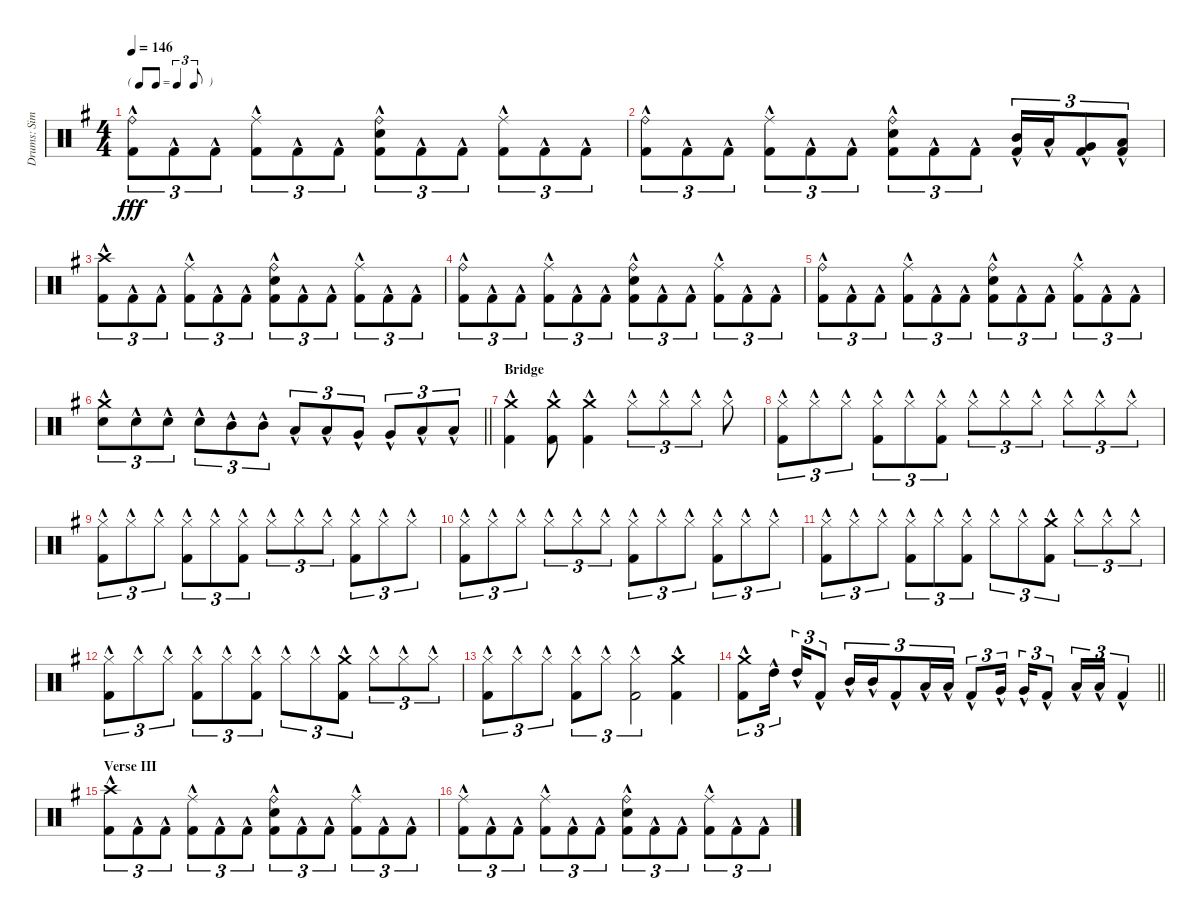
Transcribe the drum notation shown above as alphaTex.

\track ("Drums: Simon" "Drums: Sim") {instrument percussion}
\staff {score}
\articulation defaults
\ts (4 4)
\tf triplet8th
\tempo 146
\clef neutral
\ks g
("Ride (bell)"{hac} "Kick (hit) 2"{hac}).8{tu (3 2) dy fff} "Kick (hit) 2"{hac}.8{tu (3 2)} "Kick (hit) 2"{hac}.8{tu (3 2)} ("Ride (middle)"{hac} "Kick (hit) 2"{hac}).8{tu (3 2)} "Kick (hit) 2"{hac}.8{tu (3 2)} "Kick (hit) 2"{hac}.8{tu (3 2)} ("Ride (bell)"{hac} "Snare (hit) 2"{hac} "Kick (hit) 2"{hac}).8{tu (3 2)} "Kick (hit) 2"{hac}.8{tu (3 2)} "Kick (hit) 2"{hac}.8{tu (3 2)} ("Ride (middle)"{hac} "Kick (hit) 2"{hac}).8{tu (3 2)} "Kick (hit) 2"{hac}.8{tu (3 2)} "Kick (hit) 2"{hac}.8{tu (3 2)} |
("Ride (bell)"{hac} "Kick (hit) 2"{hac}).8{tu (3 2)} "Kick (hit) 2"{hac}.8{tu (3 2)} "Kick (hit) 2"{hac}.8{tu (3 2)} ("Ride (middle)"{hac} "Kick (hit) 2"{hac}).8{tu (3 2)} "Kick (hit) 2"{hac}.8{tu (3 2)} "Kick (hit) 2"{hac}.8{tu (3 2)} ("Ride (bell)"{hac} "Snare (hit) 2"{hac} "Kick (hit) 2"{hac}).8{tu (3 2)} "Kick (hit) 2"{hac}.8{tu (3 2)} "Kick (hit) 2"{hac}.8{tu (3 2)} ("Mid Tom (hit)"{hac} "Kick (hit) 2"{hac}).16{tu (3 2)} "Low Tom (hit)"{hac}.16{tu (3 2)} ("Very Low Tom (hit)"{hac} "Kick (hit) 2"{hac}).8{tu (3 2)} ("Low Floor Tom (hit)"{hac} "Kick (hit) 2"{hac}).8{tu (3 2)} |
("Crash high (hit)"{hac} "Kick (hit) 2"{hac}).8{tu (3 2)} "Kick (hit) 2"{hac}.8{tu (3 2)} "Kick (hit) 2"{hac}.8{tu (3 2)} ("Ride (middle)"{hac} "Kick (hit) 2"{hac}).8{tu (3 2)} "Kick (hit) 2"{hac}.8{tu (3 2)} "Kick (hit) 2"{hac}.8{tu (3 2)} ("Ride (bell)"{hac} "Snare (hit) 2"{hac} "Kick (hit) 2"{hac}).8{tu (3 2)} "Kick (hit) 2"{hac}.8{tu (3 2)} "Kick (hit) 2"{hac}.8{tu (3 2)} ("Ride (middle)"{hac} "Kick (hit) 2"{hac}).8{tu (3 2)} "Kick (hit) 2"{hac}.8{tu (3 2)} "Kick (hit) 2"{hac}.8{tu (3 2)} |
("Ride (bell)"{hac} "Kick (hit) 2"{hac}).8{tu (3 2)} "Kick (hit) 2"{hac}.8{tu (3 2)} "Kick (hit) 2"{hac}.8{tu (3 2)} ("Ride (middle)"{hac} "Kick (hit) 2"{hac}).8{tu (3 2)} "Kick (hit) 2"{hac}.8{tu (3 2)} "Kick (hit) 2"{hac}.8{tu (3 2)} ("Ride (bell)"{hac} "Snare (hit) 2"{hac} "Kick (hit) 2"{hac}).8{tu (3 2)} "Kick (hit) 2"{hac}.8{tu (3 2)} "Kick (hit) 2"{hac}.8{tu (3 2)} ("Ride (middle)"{hac} "Kick (hit) 2"{hac}).8{tu (3 2)} "Kick (hit) 2"{hac}.8{tu (3 2)} "Kick (hit) 2"{hac}.8{tu (3 2)} |
("Ride (bell)"{hac} "Kick (hit) 2"{hac}).8{tu (3 2)} "Kick (hit) 2"{hac}.8{tu (3 2)} "Kick (hit) 2"{hac}.8{tu (3 2)} ("Ride (middle)"{hac} "Kick (hit) 2"{hac}).8{tu (3 2)} "Kick (hit) 2"{hac}.8{tu (3 2)} "Kick (hit) 2"{hac}.8{tu (3 2)} ("Ride (bell)"{hac} "Snare (hit) 2"{hac} "Kick (hit) 2"{hac}).8{tu (3 2)} "Kick (hit) 2"{hac}.8{tu (3 2)} "Kick (hit) 2"{hac}.8{tu (3 2)} ("Ride (middle)"{hac} "Kick (hit) 2"{hac}).8{tu (3 2)} "Kick (hit) 2"{hac}.8{tu (3 2)} "Kick (hit) 2"{hac}.8{tu (3 2)} |
\barLineRight lightlight
("Crash medium (hit)"{hac} "Electric Snare (hit)"{hac}).8{tu (3 2)} "Electric Snare (hit)"{hac}.8{tu (3 2)} "Electric Snare (hit)"{hac}.8{tu (3 2)} "Electric Snare (hit)"{hac}.8{tu (3 2)} "Mid Tom (hit)"{hac}.8{tu (3 2)} "Mid Tom (hit)"{hac}.8{tu (3 2)} "Low Tom (hit)"{hac}.8{tu (3 2)} "Low Tom (hit)"{hac}.8{tu (3 2)} "Very Low Tom (hit)"{hac}.8{tu (3 2)} "Very Low Tom (hit)"{hac}.8{tu (3 2)} "Low Floor Tom (hit)"{hac}.8{tu (3 2)} "Low Floor Tom (hit)"{hac}.8{tu (3 2)} |
\section ("" "Bridge")
("Crash medium (hit)"{hac} "Kick (hit) 2"{hac}).4 ("Crash medium (hit)"{hac} "Kick (hit) 2"{hac}).8 ("Crash medium (hit)"{hac} "Kick (hit) 2"{hac}).4 "Hi-Hat (closed)"{hac}.8{tu (3 2)} "Hi-Hat (closed)"{hac}.8{tu (3 2)} "Hi-Hat (closed)"{hac}.8{tu (3 2)} "Hi-Hat (closed)"{hac}.8 |
("Hi-Hat (closed)"{hac} "Kick (hit) 2"{hac}).8{tu (3 2)} "Hi-Hat (closed)"{hac}.8{tu (3 2)} "Hi-Hat (closed)"{hac}.8{tu (3 2)} ("Hi-Hat (closed)"{hac} "Kick (hit) 2"{hac}).8{tu (3 2)} "Hi-Hat (closed)"{hac}.8{tu (3 2)} ("Hi-Hat (closed)"{hac} "Kick (hit) 2"{hac}).8{tu (3 2)} "Hi-Hat (closed)"{hac}.8{tu (3 2)} "Hi-Hat (closed)"{hac}.8{tu (3 2)} "Hi-Hat (closed)"{hac}.8{tu (3 2)} "Hi-Hat (closed)"{hac}.8{tu (3 2)} "Hi-Hat (closed)"{hac}.8{tu (3 2)} "Hi-Hat (closed)"{hac}.8{tu (3 2)} |
("Hi-Hat (closed)"{hac} "Kick (hit) 2"{hac}).8{tu (3 2)} "Hi-Hat (closed)"{hac}.8{tu (3 2)} "Hi-Hat (closed)"{hac}.8{tu (3 2)} ("Hi-Hat (closed)"{hac} "Kick (hit) 2"{hac}).8{tu (3 2)} "Hi-Hat (closed)"{hac}.8{tu (3 2)} ("Hi-Hat (closed)"{hac} "Kick (hit) 2"{hac}).8{tu (3 2)} "Hi-Hat (closed)"{hac}.8{tu (3 2)} "Hi-Hat (closed)"{hac}.8{tu (3 2)} "Hi-Hat (closed)"{hac}.8{tu (3 2)} ("Hi-Hat (closed)"{hac} "Kick (hit) 2"{hac}).8{tu (3 2)} "Hi-Hat (closed)"{hac}.8{tu (3 2)} "Hi-Hat (closed)"{hac}.8{tu (3 2)} |
("Hi-Hat (closed)"{hac} "Kick (hit) 2"{hac}).8{tu (3 2)} "Hi-Hat (closed)"{hac}.8{tu (3 2)} "Hi-Hat (closed)"{hac}.8{tu (3 2)} "Hi-Hat (closed)"{hac}.8{tu (3 2)} "Hi-Hat (closed)"{hac}.8{tu (3 2)} "Hi-Hat (closed)"{hac}.8{tu (3 2)} ("Hi-Hat (closed)"{hac} "Kick (hit) 2"{hac}).8{tu (3 2)} "Hi-Hat (closed)"{hac}.8{tu (3 2)} "Hi-Hat (closed)"{hac}.8{tu (3 2)} ("Hi-Hat (closed)"{hac} "Kick (hit) 2"{hac}).8{tu (3 2)} "Hi-Hat (closed)"{hac}.8{tu (3 2)} "Hi-Hat (closed)"{hac}.8{tu (3 2)} |
("Hi-Hat (closed)"{hac} "Kick (hit) 2"{hac}).8{tu (3 2)} "Hi-Hat (closed)"{hac}.8{tu (3 2)} "Hi-Hat (closed)"{hac}.8{tu (3 2)} ("Hi-Hat (closed)"{hac} "Kick (hit) 2"{hac}).8{tu (3 2)} "Hi-Hat (closed)"{hac}.8{tu (3 2)} ("Hi-Hat (closed)"{hac} "Kick (hit) 2"{hac}).8{tu (3 2)} "Hi-Hat (closed)"{hac}.8{tu (3 2)} "Hi-Hat (closed)"{hac}.8{tu (3 2)} ("Crash medium (hit)"{hac} "Kick (hit) 2"{hac}).8{tu (3 2)} "Hi-Hat (closed)"{hac}.8{tu (3 2)} "Hi-Hat (closed)"{hac}.8{tu (3 2)} "Hi-Hat (closed)"{hac}.8{tu (3 2)} |
("Hi-Hat (closed)"{hac} "Kick (hit) 2"{hac}).8{tu (3 2)} "Hi-Hat (closed)"{hac}.8{tu (3 2)} "Hi-Hat (closed)"{hac}.8{tu (3 2)} ("Hi-Hat (closed)"{hac} "Kick (hit) 2"{hac}).8{tu (3 2)} "Hi-Hat (closed)"{hac}.8{tu (3 2)} ("Hi-Hat (closed)"{hac} "Kick (hit) 2"{hac}).8{tu (3 2)} "Hi-Hat (closed)"{hac}.8{tu (3 2)} "Hi-Hat (closed)"{hac}.8{tu (3 2)} ("Crash medium (hit)"{hac} "Kick (hit) 2"{hac}).8{tu (3 2)} "Hi-Hat (closed)"{hac}.8{tu (3 2)} "Hi-Hat (closed)"{hac}.8{tu (3 2)} "Hi-Hat (closed)"{hac}.8{tu (3 2)} |
("Hi-Hat (closed)"{hac} "Kick (hit) 2"{hac}).8{tu (3 2)} "Hi-Hat (closed)"{hac}.8{tu (3 2)} "Hi-Hat (closed)"{hac}.8{tu (3 2)} ("Hi-Hat (closed)"{hac} "Kick (hit) 2"{hac}).8{tu (3 2)} "Hi-Hat (closed)"{hac}.8{tu (3 2)} ("Hi-Hat (closed)"{hac} "Kick (hit) 2"{hac}).2{tu (3 2)} ("Crash medium (hit)"{hac} "Kick (hit) 2"{hac}).4 |
\barLineRight lightlight
("Crash medium (hit)"{hac} "Kick (hit) 2"{hac}).8{tu (3 2)} "High Tom (hit)"{hac}.16{tu (3 2) beam splitsecondary} "High Tom (hit)"{hac}.16{tu (3 2)} "Kick (hit) 2"{hac}.8{tu (3 2)} "Mid Tom (hit)"{hac}.16{tu (3 2)} "Mid Tom (hit)"{hac}.16{tu (3 2)} "Kick (hit) 2"{hac}.8{tu (3 2)} "Low Tom (hit)"{hac}.16{tu (3 2)} "Low Tom (hit)"{hac}.16{tu (3 2)} "Kick (hit) 2"{hac}.8{tu (3 2)} "Very Low Tom (hit)"{hac}.16{tu (3 2) beam splitsecondary} "Very Low Tom (hit)"{hac}.16{tu (3 2)} "Kick (hit) 2"{hac}.8{tu (3 2)} "Low Floor Tom (hit)"{hac}.16{tu (3 2)} "Low Floor Tom (hit)"{hac}.16{tu (3 2)} "Kick (hit) 2"{hac}.4{tu (3 2)} |
\section ("" "Verse III")
("Crash high (hit)"{hac} "Kick (hit) 2"{hac}).8{tu (3 2)} "Kick (hit) 2"{hac}.8{tu (3 2)} "Kick (hit) 2"{hac}.8{tu (3 2)} ("Ride (middle)"{hac} "Kick (hit) 2"{hac}).8{tu (3 2)} "Kick (hit) 2"{hac}.8{tu (3 2)} "Kick (hit) 2"{hac}.8{tu (3 2)} ("Ride (bell)"{hac} "Snare (hit) 2"{hac} "Kick (hit) 2"{hac}).8{tu (3 2)} "Kick (hit) 2"{hac}.8{tu (3 2)} "Kick (hit) 2"{hac}.8{tu (3 2)} ("Ride (middle)"{hac} "Kick (hit) 2"{hac}).8{tu (3 2)} "Kick (hit) 2"{hac}.8{tu (3 2)} "Kick (hit) 2"{hac}.8{tu (3 2)} |
("Ride (middle)"{hac} "Kick (hit) 2"{hac}).8{tu (3 2)} "Kick (hit) 2"{hac}.8{tu (3 2)} "Kick (hit) 2"{hac}.8{tu (3 2)} ("Ride (middle)"{hac} "Kick (hit) 2"{hac}).8{tu (3 2)} "Kick (hit) 2"{hac}.8{tu (3 2)} "Kick (hit) 2"{hac}.8{tu (3 2)} ("Ride (bell)"{hac} "Snare (hit) 2"{hac} "Kick (hit) 2"{hac}).8{tu (3 2)} "Kick (hit) 2"{hac}.8{tu (3 2)} "Kick (hit) 2"{hac}.8{tu (3 2)} ("Ride (middle)"{hac} "Kick (hit) 2"{hac}).8{tu (3 2)} "Kick (hit) 2"{hac}.8{tu (3 2)} "Kick (hit) 2"{hac}.8{tu (3 2)}
